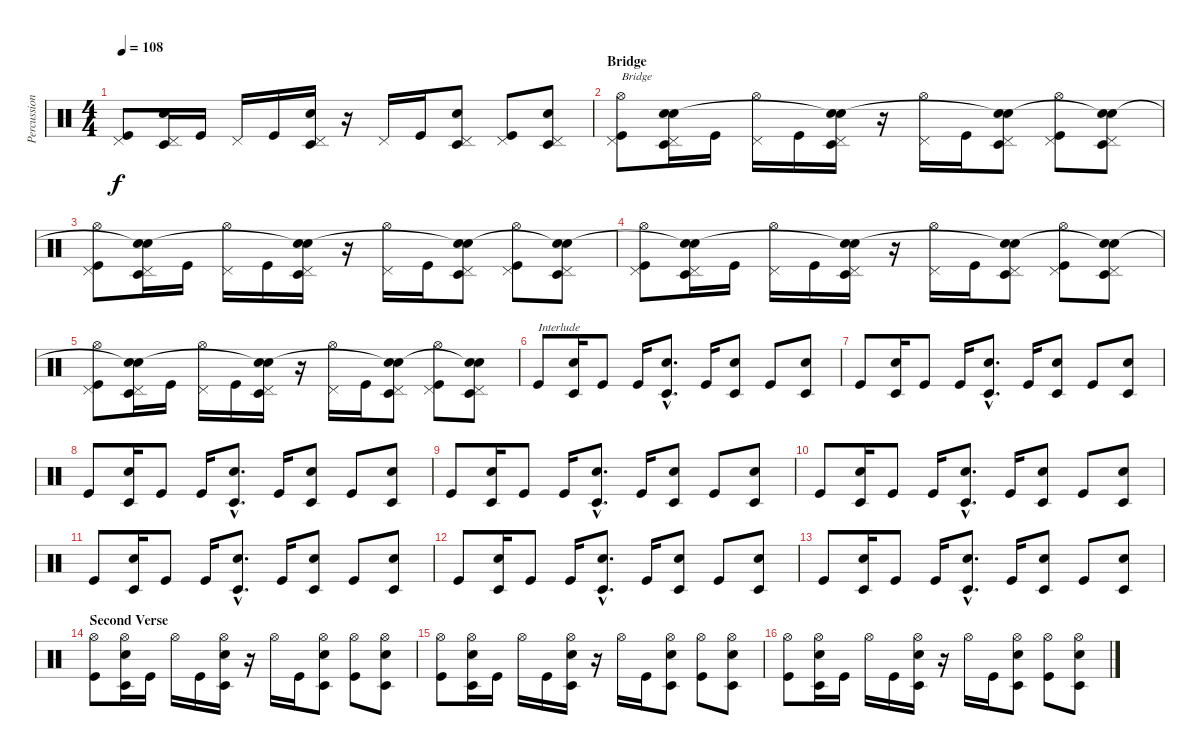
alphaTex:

\track ("Percussion" "Percussion") {instrument percussion}
\staff {score}
\articulation defaults
\ts (4 4)
\tempo 108
\clef neutral
\ks c
("Pedal Hi-Hat (hit)" "Kick (hit)").8{dy f} ("Pedal Hi-Hat (hit)" "Electric Snare (hit)" "Timbale low (hit)").16 "Kick (hit)".16 "Pedal Hi-Hat (hit)".16 "Kick (hit)".16 ("Pedal Hi-Hat (hit)" "Timbale low (hit)" "Electric Snare (hit)").16 r.16 "Pedal Hi-Hat (hit)".16 "Kick (hit)".16 ("Pedal Hi-Hat (hit)" "Electric Snare (hit)" "Timbale low (hit)").8 ("Pedal Hi-Hat (hit)" "Kick (hit)").8 ("Pedal Hi-Hat (hit)" "Electric Snare (hit)" "Timbale low (hit)").8 |
\section ("" "Bridge")
("Pedal Hi-Hat (hit)" "Hi-Hat (open)" "Kick (hit)").8{txt "Bridge"} ("Pedal Hi-Hat (hit)" "Electric Snare (hit)" "Timbale low (hit)" "Snare (hit)"{t}).16 "Kick (hit)".16 ("Pedal Hi-Hat (hit)" "Hi-Hat (open)").16 "Kick (hit)".16 ("Pedal Hi-Hat (hit)" "Timbale low (hit)" "Electric Snare (hit)" "Snare (hit)"{t}).16 r.16 ("Pedal Hi-Hat (hit)" "Hi-Hat (open)").16 "Kick (hit)".16 ("Pedal Hi-Hat (hit)" "Electric Snare (hit)" "Timbale low (hit)" "Snare (hit)"{t}).8 ("Pedal Hi-Hat (hit)" "Hi-Hat (open)" "Kick (hit)").8 ("Pedal Hi-Hat (hit)" "Electric Snare (hit)" "Timbale low (hit)" "Snare (hit)"{t}).8 |
("Pedal Hi-Hat (hit)" "Hi-Hat (open)" "Kick (hit)").8 ("Pedal Hi-Hat (hit)" "Electric Snare (hit)" "Timbale low (hit)" "Snare (hit)"{t}).16 "Kick (hit)".16 ("Pedal Hi-Hat (hit)" "Hi-Hat (open)").16 "Kick (hit)".16 ("Pedal Hi-Hat (hit)" "Timbale low (hit)" "Electric Snare (hit)" "Snare (hit)"{t}).16 r.16 ("Pedal Hi-Hat (hit)" "Hi-Hat (open)").16 "Kick (hit)".16 ("Pedal Hi-Hat (hit)" "Electric Snare (hit)" "Timbale low (hit)" "Snare (hit)"{t}).8 ("Pedal Hi-Hat (hit)" "Hi-Hat (open)" "Kick (hit)").8 ("Pedal Hi-Hat (hit)" "Electric Snare (hit)" "Timbale low (hit)" "Snare (hit)"{t}).8 |
("Pedal Hi-Hat (hit)" "Hi-Hat (open)" "Kick (hit)").8 ("Pedal Hi-Hat (hit)" "Electric Snare (hit)" "Timbale low (hit)" "Snare (hit)"{t}).16 "Kick (hit)".16 ("Pedal Hi-Hat (hit)" "Hi-Hat (open)").16 "Kick (hit)".16 ("Pedal Hi-Hat (hit)" "Timbale low (hit)" "Electric Snare (hit)" "Snare (hit)"{t}).16 r.16 ("Pedal Hi-Hat (hit)" "Hi-Hat (open)").16 "Kick (hit)".16 ("Pedal Hi-Hat (hit)" "Electric Snare (hit)" "Timbale low (hit)" "Snare (hit)"{t}).8 ("Pedal Hi-Hat (hit)" "Hi-Hat (open)" "Kick (hit)").8 ("Pedal Hi-Hat (hit)" "Electric Snare (hit)" "Timbale low (hit)" "Snare (hit)"{t}).8 |
("Pedal Hi-Hat (hit)" "Hi-Hat (open)" "Kick (hit)").8 ("Pedal Hi-Hat (hit)" "Electric Snare (hit)" "Timbale low (hit)" "Snare (hit)"{t}).16 "Kick (hit)".16 ("Pedal Hi-Hat (hit)" "Hi-Hat (open)").16 "Kick (hit)".16 ("Pedal Hi-Hat (hit)" "Timbale low (hit)" "Electric Snare (hit)" "Snare (hit)"{t}).16 r.16 ("Pedal Hi-Hat (hit)" "Hi-Hat (open)").16 "Kick (hit)".16 ("Pedal Hi-Hat (hit)" "Electric Snare (hit)" "Timbale low (hit)" "Snare (hit)"{t}).8 ("Pedal Hi-Hat (hit)" "Hi-Hat (open)" "Kick (hit)").8 ("Pedal Hi-Hat (hit)" "Electric Snare (hit)" "Timbale low (hit)" "Snare (hit)"{t}).8 |
"Kick (hit)".8{txt "Interlude"} ("Electric Snare (hit)" "Timbale low (hit)").16 "Kick (hit)".8 "Kick (hit)".16 ("Electric Snare (hit)"{hac} "Timbale low (hit)"{hac}).8{d} "Kick (hit)".16 ("Electric Snare (hit)" "Timbale low (hit)").8 "Kick (hit)".8 ("Electric Snare (hit)" "Timbale low (hit)").8 |
"Kick (hit)".8 ("Electric Snare (hit)" "Timbale low (hit)").16 "Kick (hit)".8 "Kick (hit)".16 ("Electric Snare (hit)"{hac} "Timbale low (hit)"{hac}).8{d} "Kick (hit)".16 ("Electric Snare (hit)" "Timbale low (hit)").8 "Kick (hit)".8 ("Electric Snare (hit)" "Timbale low (hit)").8 |
"Kick (hit)".8 ("Electric Snare (hit)" "Timbale low (hit)").16 "Kick (hit)".8 "Kick (hit)".16 ("Electric Snare (hit)"{hac} "Timbale low (hit)"{hac}).8{d} "Kick (hit)".16 ("Electric Snare (hit)" "Timbale low (hit)").8 "Kick (hit)".8 ("Electric Snare (hit)" "Timbale low (hit)").8 |
"Kick (hit)".8 ("Electric Snare (hit)" "Timbale low (hit)").16 "Kick (hit)".8 "Kick (hit)".16 ("Electric Snare (hit)"{hac} "Timbale low (hit)"{hac}).8{d} "Kick (hit)".16 ("Electric Snare (hit)" "Timbale low (hit)").8 "Kick (hit)".8 ("Electric Snare (hit)" "Timbale low (hit)").8 |
"Kick (hit)".8 ("Electric Snare (hit)" "Timbale low (hit)").16 "Kick (hit)".8 "Kick (hit)".16 ("Electric Snare (hit)"{hac} "Timbale low (hit)"{hac}).8{d} "Kick (hit)".16 ("Electric Snare (hit)" "Timbale low (hit)").8 "Kick (hit)".8 ("Electric Snare (hit)" "Timbale low (hit)").8 |
"Kick (hit)".8 ("Electric Snare (hit)" "Timbale low (hit)").16 "Kick (hit)".8 "Kick (hit)".16 ("Electric Snare (hit)"{hac} "Timbale low (hit)"{hac}).8{d} "Kick (hit)".16 ("Electric Snare (hit)" "Timbale low (hit)").8 "Kick (hit)".8 ("Electric Snare (hit)" "Timbale low (hit)").8 |
"Kick (hit)".8 ("Electric Snare (hit)" "Timbale low (hit)").16 "Kick (hit)".8 "Kick (hit)".16 ("Electric Snare (hit)"{hac} "Timbale low (hit)"{hac}).8{d} "Kick (hit)".16 ("Electric Snare (hit)" "Timbale low (hit)").8 "Kick (hit)".8 ("Electric Snare (hit)" "Timbale low (hit)").8 |
"Kick (hit)".8 ("Electric Snare (hit)" "Timbale low (hit)").16 "Kick (hit)".8 "Kick (hit)".16 ("Electric Snare (hit)"{hac} "Timbale low (hit)"{hac}).8{d} "Kick (hit)".16 ("Electric Snare (hit)" "Timbale low (hit)").8 "Kick (hit)".8 ("Electric Snare (hit)" "Timbale low (hit)").8 |
\section ("" "Second Verse")
("Hi-Hat (open)" "Kick (hit)").8 ("Hi-Hat (open)" "Electric Snare (hit)" "Timbale low (hit)").16 "Kick (hit)".16 "Hi-Hat (open)".16 "Kick (hit)".16 ("Hi-Hat (open)" "Timbale low (hit)" "Electric Snare (hit)").16 r.16 "Hi-Hat (open)".16 "Kick (hit)".16 ("Hi-Hat (open)" "Electric Snare (hit)" "Timbale low (hit)").8 ("Hi-Hat (open)" "Kick (hit)").8 ("Hi-Hat (open)" "Electric Snare (hit)" "Timbale low (hit)").8 |
("Hi-Hat (open)" "Kick (hit)").8 ("Hi-Hat (open)" "Electric Snare (hit)" "Timbale low (hit)").16 "Kick (hit)".16 "Hi-Hat (open)".16 "Kick (hit)".16 ("Hi-Hat (open)" "Timbale low (hit)" "Electric Snare (hit)").16 r.16 "Hi-Hat (open)".16 "Kick (hit)".16 ("Hi-Hat (open)" "Electric Snare (hit)" "Timbale low (hit)").8 ("Hi-Hat (open)" "Kick (hit)").8 ("Hi-Hat (open)" "Electric Snare (hit)" "Timbale low (hit)").8 |
("Hi-Hat (open)" "Kick (hit)").8 ("Hi-Hat (open)" "Electric Snare (hit)" "Timbale low (hit)").16 "Kick (hit)".16 "Hi-Hat (open)".16 "Kick (hit)".16 ("Hi-Hat (open)" "Timbale low (hit)" "Electric Snare (hit)").16 r.16 "Hi-Hat (open)".16 "Kick (hit)".16 ("Hi-Hat (open)" "Electric Snare (hit)" "Timbale low (hit)").8 ("Hi-Hat (open)" "Kick (hit)").8 ("Hi-Hat (open)" "Electric Snare (hit)" "Timbale low (hit)").8
